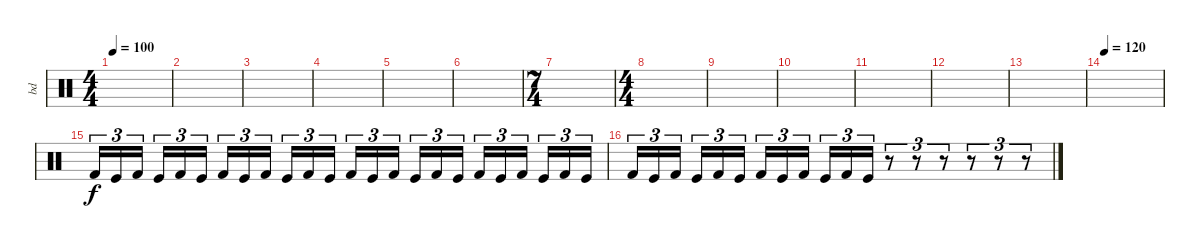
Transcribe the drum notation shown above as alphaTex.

\track ("bd" "bd") {instrument percussion}
\staff
\articulation defaults
\ts (4 4)
\tempo 100
\clef neutral
\ks c
|
|
|
|
|
|
\ts (7 4)
|
\ts (4 4)
|
|
|
|
|
|
\tempo 120
|
"Kick (hit) 2".16{tu (3 2)} "Kick (hit)".16{tu (3 2)} "Kick (hit) 2".16{tu (3 2) beam splitsecondary} "Kick (hit)".16{tu (3 2)} "Kick (hit) 2".16{tu (3 2)} "Kick (hit)".16{tu (3 2)} "Kick (hit) 2".16{tu (3 2)} "Kick (hit)".16{tu (3 2)} "Kick (hit) 2".16{tu (3 2) beam splitsecondary} "Kick (hit)".16{tu (3 2)} "Kick (hit) 2".16{tu (3 2)} "Kick (hit)".16{tu (3 2)} "Kick (hit) 2".16{tu (3 2)} "Kick (hit)".16{tu (3 2)} "Kick (hit) 2".16{tu (3 2) beam splitsecondary} "Kick (hit)".16{tu (3 2)} "Kick (hit) 2".16{tu (3 2)} "Kick (hit)".16{tu (3 2)} "Kick (hit) 2".16{tu (3 2)} "Kick (hit)".16{tu (3 2)} "Kick (hit) 2".16{tu (3 2) beam splitsecondary} "Kick (hit)".16{tu (3 2)} "Kick (hit) 2".16{tu (3 2)} "Kick (hit)".16{tu (3 2)} |
"Kick (hit) 2".16{tu (3 2)} "Kick (hit)".16{tu (3 2)} "Kick (hit) 2".16{tu (3 2) beam splitsecondary} "Kick (hit)".16{tu (3 2)} "Kick (hit) 2".16{tu (3 2)} "Kick (hit)".16{tu (3 2)} "Kick (hit) 2".16{tu (3 2)} "Kick (hit)".16{tu (3 2)} "Kick (hit) 2".16{tu (3 2) beam splitsecondary} "Kick (hit)".16{tu (3 2)} "Kick (hit) 2".16{tu (3 2)} "Kick (hit)".16{tu (3 2)} r.8{tu (3 2)} r.8{tu (3 2)} r.8{tu (3 2)} r.8{tu (3 2)} r.8{tu (3 2)} r.8{tu (3 2)}
